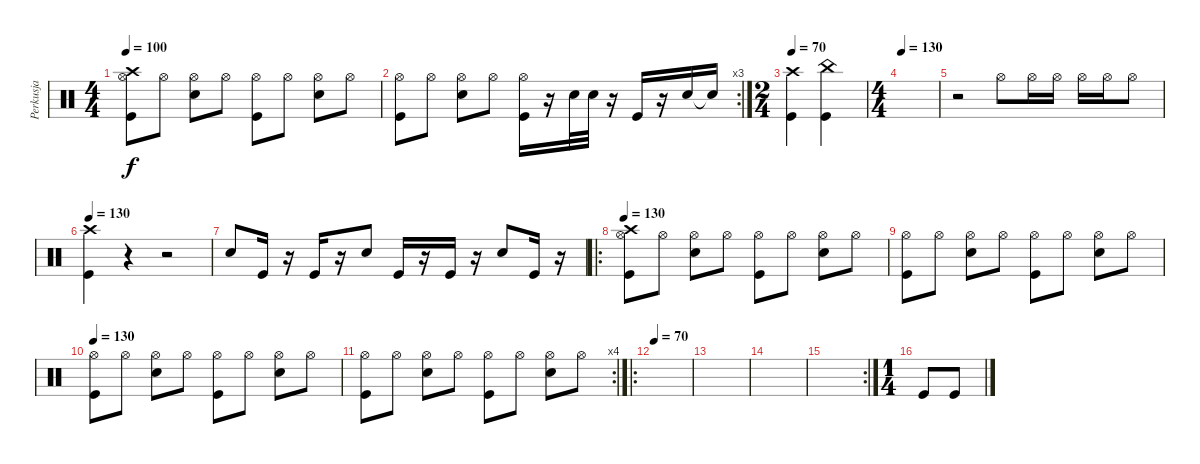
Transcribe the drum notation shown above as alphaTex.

\track ("Perkusja" "Perkusja") {instrument percussion}
\staff {score}
\articulation defaults
\ts (4 4)
\tempo 100
\clef neutral
\ks c
("Crash high (hit)" "Hi-Hat (open)" "Kick (hit)").8{dy f} "Hi-Hat (open)".8 ("Snare (hit) 2" "Hi-Hat (open)").8 "Hi-Hat (open)".8 ("Kick (hit)" "Hi-Hat (open)").8 "Hi-Hat (open)".8 ("Snare (hit) 2" "Hi-Hat (open)").8 "Hi-Hat (open)".8 |
\rc 3
("Kick (hit)" "Hi-Hat (open)").8 "Hi-Hat (open)".8 ("Snare (hit) 2" "Hi-Hat (open)").8 "Hi-Hat (open)".8 ("Kick (hit)" "Hi-Hat (open)").16 r.16 "Snare (hit) 2".32 "Snare (hit) 2".32 r.16 "Kick (hit)".16 r.16 "Snare (hit) 2".16 "Snare (hit)"{t}.16 |
\ts (2 4)
\tempo 70
("Crash high (hit)" "Kick (hit)").4 ("China (hit)" "Kick (hit)").4 |
\ts (4 4)
\tempo 120
\tempo 130
|
r.2 "Hi-Hat (open)".8 "Hi-Hat (open)".16 "Hi-Hat (open)".16 "Hi-Hat (open)".16 "Hi-Hat (open)".16 "Hi-Hat (open)".8 |
\tempo 130
("Crash high (hit)" "Kick (hit)").4 r.4 r.2 |
"Snare (hit) 2".8 "Kick (hit)".16 r.16 "Kick (hit)".16 r.16 "Snare (hit) 2".8 "Kick (hit)".16 r.16 "Kick (hit)".16 r.16 "Snare (hit) 2".8 "Kick (hit)".16 r.16 |
\ro
\tempo 130
("Crash high (hit)" "Hi-Hat (open)" "Kick (hit)").8 "Hi-Hat (open)".8 ("Snare (hit) 2" "Hi-Hat (open)").8 "Hi-Hat (open)".8 ("Kick (hit)" "Hi-Hat (open)").8 "Hi-Hat (open)".8 ("Snare (hit) 2" "Hi-Hat (open)").8 "Hi-Hat (open)".8 |
("Hi-Hat (open)" "Kick (hit)").8 "Hi-Hat (open)".8 ("Snare (hit) 2" "Hi-Hat (open)").8 "Hi-Hat (open)".8 ("Kick (hit)" "Hi-Hat (open)").8 "Hi-Hat (open)".8 ("Snare (hit) 2" "Hi-Hat (open)").8 "Hi-Hat (open)".8 |
\tempo 130
("Hi-Hat (open)" "Kick (hit)").8 "Hi-Hat (open)".8 ("Snare (hit) 2" "Hi-Hat (open)").8 "Hi-Hat (open)".8 ("Kick (hit)" "Hi-Hat (open)").8 "Hi-Hat (open)".8 ("Snare (hit) 2" "Hi-Hat (open)").8 "Hi-Hat (open)".8 |
\rc 4
("Hi-Hat (open)" "Kick (hit)").8 "Hi-Hat (open)".8 ("Snare (hit) 2" "Hi-Hat (open)").8 "Hi-Hat (open)".8 ("Kick (hit)" "Hi-Hat (open)").8 "Hi-Hat (open)".8 ("Snare (hit) 2" "Hi-Hat (open)").8 "Hi-Hat (open)".8 |
\ro
\tempo 70
|
|
|
\rc 2
|
\ts (1 4)
"Kick (hit)".8 "Kick (hit)".8
